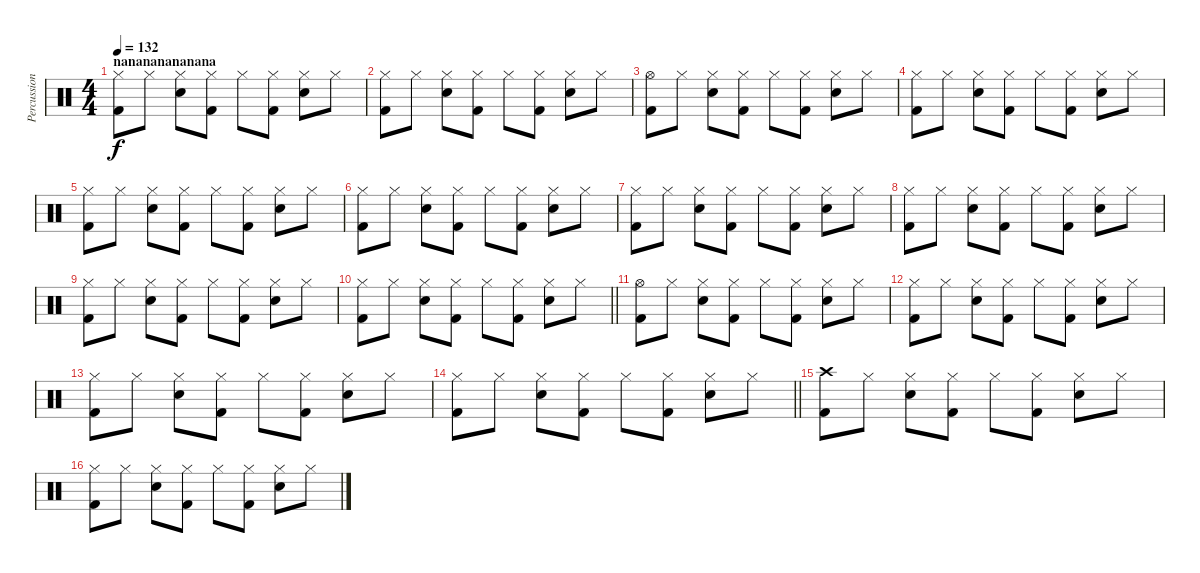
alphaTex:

\track ("Percussions" "Percussion") {instrument percussion}
\staff {score}
\articulation defaults
\ts (4 4)
\section ("" "nanananananana")
\tempo 132
\clef neutral
\ks c
("Hi-Hat (closed)" "Kick (hit) 2").8{dy f} "Hi-Hat (closed)".8 ("Hi-Hat (closed)" "Electric Snare (hit)").8 ("Hi-Hat (closed)" "Kick (hit) 2").8 "Hi-Hat (closed)".8 ("Hi-Hat (closed)" "Kick (hit) 2").8 ("Hi-Hat (closed)" "Electric Snare (hit)").8 "Hi-Hat (closed)".8 |
("Hi-Hat (closed)" "Kick (hit) 2").8 "Hi-Hat (closed)".8 ("Hi-Hat (closed)" "Electric Snare (hit)").8 ("Hi-Hat (closed)" "Kick (hit) 2").8 "Hi-Hat (closed)".8 ("Hi-Hat (closed)" "Kick (hit) 2").8 ("Hi-Hat (closed)" "Electric Snare (hit)").8 "Hi-Hat (closed)".8 |
("Hi-Hat (open)" "Kick (hit) 2").8 "Hi-Hat (closed)".8 ("Hi-Hat (closed)" "Electric Snare (hit)").8 ("Hi-Hat (closed)" "Kick (hit) 2").8 "Hi-Hat (closed)".8 ("Hi-Hat (closed)" "Kick (hit) 2").8 ("Hi-Hat (closed)" "Electric Snare (hit)").8 "Hi-Hat (closed)".8 |
("Hi-Hat (closed)" "Kick (hit) 2").8 "Hi-Hat (closed)".8 ("Hi-Hat (closed)" "Electric Snare (hit)").8 ("Hi-Hat (closed)" "Kick (hit) 2").8 "Hi-Hat (closed)".8 ("Hi-Hat (closed)" "Kick (hit) 2").8 ("Hi-Hat (closed)" "Electric Snare (hit)").8 "Hi-Hat (closed)".8 |
("Hi-Hat (closed)" "Kick (hit) 2").8 "Hi-Hat (closed)".8 ("Hi-Hat (closed)" "Electric Snare (hit)").8 ("Hi-Hat (closed)" "Kick (hit) 2").8 "Hi-Hat (closed)".8 ("Hi-Hat (closed)" "Kick (hit) 2").8 ("Hi-Hat (closed)" "Electric Snare (hit)").8 "Hi-Hat (closed)".8 |
("Hi-Hat (closed)" "Kick (hit) 2").8 "Hi-Hat (closed)".8 ("Hi-Hat (closed)" "Electric Snare (hit)").8 ("Hi-Hat (closed)" "Kick (hit) 2").8 "Hi-Hat (closed)".8 ("Hi-Hat (closed)" "Kick (hit) 2").8 ("Hi-Hat (closed)" "Electric Snare (hit)").8 "Hi-Hat (closed)".8 |
("Hi-Hat (closed)" "Kick (hit) 2").8 "Hi-Hat (closed)".8 ("Hi-Hat (closed)" "Electric Snare (hit)").8 ("Hi-Hat (closed)" "Kick (hit) 2").8 "Hi-Hat (closed)".8 ("Hi-Hat (closed)" "Kick (hit) 2").8 ("Hi-Hat (closed)" "Electric Snare (hit)").8 "Hi-Hat (closed)".8 |
("Hi-Hat (closed)" "Kick (hit) 2").8 "Hi-Hat (closed)".8 ("Hi-Hat (closed)" "Electric Snare (hit)").8 ("Hi-Hat (closed)" "Kick (hit) 2").8 "Hi-Hat (closed)".8 ("Hi-Hat (closed)" "Kick (hit) 2").8 ("Hi-Hat (closed)" "Electric Snare (hit)").8 "Hi-Hat (closed)".8 |
("Hi-Hat (closed)" "Kick (hit) 2").8 "Hi-Hat (closed)".8 ("Hi-Hat (closed)" "Electric Snare (hit)").8 ("Hi-Hat (closed)" "Kick (hit) 2").8 "Hi-Hat (closed)".8 ("Hi-Hat (closed)" "Kick (hit) 2").8 ("Hi-Hat (closed)" "Electric Snare (hit)").8 "Hi-Hat (closed)".8 |
\barLineRight lightlight
("Hi-Hat (closed)" "Kick (hit) 2").8 "Hi-Hat (closed)".8 ("Hi-Hat (closed)" "Electric Snare (hit)").8 ("Hi-Hat (closed)" "Kick (hit) 2").8 "Hi-Hat (closed)".8 ("Hi-Hat (closed)" "Kick (hit) 2").8 ("Hi-Hat (closed)" "Electric Snare (hit)").8 "Hi-Hat (closed)".8 |
("Hi-Hat (open)" "Kick (hit) 2").8 "Hi-Hat (closed)".8 ("Hi-Hat (closed)" "Electric Snare (hit)").8 ("Hi-Hat (closed)" "Kick (hit) 2").8 "Hi-Hat (closed)".8 ("Hi-Hat (closed)" "Kick (hit) 2").8 ("Hi-Hat (closed)" "Electric Snare (hit)").8 "Hi-Hat (closed)".8 |
("Hi-Hat (closed)" "Kick (hit) 2").8 "Hi-Hat (closed)".8 ("Hi-Hat (closed)" "Electric Snare (hit)").8 ("Hi-Hat (closed)" "Kick (hit) 2").8 "Hi-Hat (closed)".8 ("Hi-Hat (closed)" "Kick (hit) 2").8 ("Hi-Hat (closed)" "Electric Snare (hit)").8 "Hi-Hat (closed)".8 |
("Hi-Hat (closed)" "Kick (hit) 2").8 "Hi-Hat (closed)".8 ("Hi-Hat (closed)" "Electric Snare (hit)").8 ("Hi-Hat (closed)" "Kick (hit) 2").8 "Hi-Hat (closed)".8 ("Hi-Hat (closed)" "Kick (hit) 2").8 ("Hi-Hat (closed)" "Electric Snare (hit)").8 "Hi-Hat (closed)".8 |
\barLineRight lightlight
("Hi-Hat (closed)" "Kick (hit) 2").8 "Hi-Hat (closed)".8 ("Hi-Hat (closed)" "Electric Snare (hit)").8 ("Hi-Hat (closed)" "Kick (hit) 2").8 "Hi-Hat (closed)".8 ("Hi-Hat (closed)" "Kick (hit) 2").8 ("Hi-Hat (closed)" "Electric Snare (hit)").8 "Hi-Hat (closed)".8 |
("Crash high (hit)" "Kick (hit) 2").8 "Hi-Hat (closed)".8 ("Hi-Hat (closed)" "Electric Snare (hit)").8 ("Hi-Hat (closed)" "Kick (hit) 2").8 "Hi-Hat (closed)".8 ("Hi-Hat (closed)" "Kick (hit) 2").8 ("Hi-Hat (closed)" "Electric Snare (hit)").8 "Hi-Hat (closed)".8 |
("Hi-Hat (closed)" "Kick (hit) 2").8 "Hi-Hat (closed)".8 ("Hi-Hat (closed)" "Electric Snare (hit)").8 ("Hi-Hat (closed)" "Kick (hit) 2").8 "Hi-Hat (closed)".8 ("Hi-Hat (closed)" "Kick (hit) 2").8 ("Hi-Hat (closed)" "Electric Snare (hit)").8 "Hi-Hat (closed)".8
